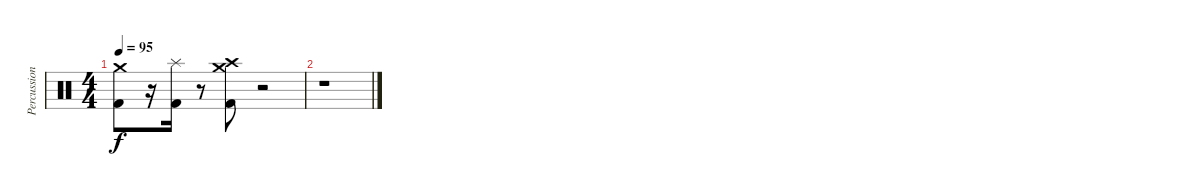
\track ("Percussion" "Percussion") {instrument percussion}
\staff {score}
\articulation defaults
\ts (4 4)
\tempo 95
\clef neutral
\ks c
("Crash medium (hit)" "Kick (hit) 2").8{dy f} r.16 ("Splash (hit)" "Kick (hit) 2").16 r.8 ("Crash medium (hit)" "Crash high (hit)" "Kick (hit) 2").8 r.2 |
r.1
